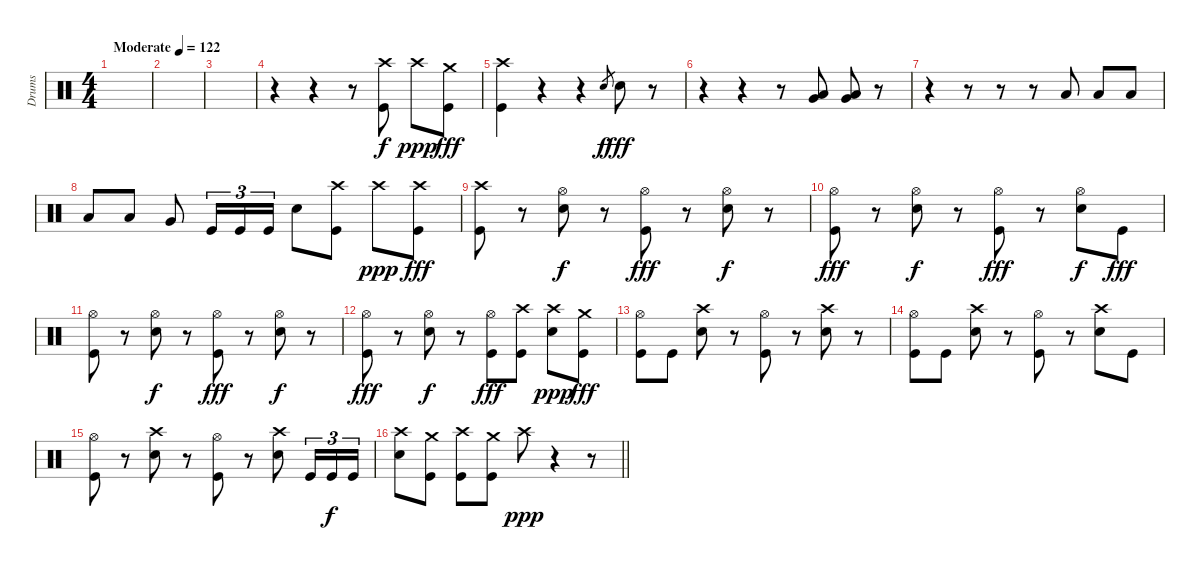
\track ("Drums" "Drums") {instrument percussion}
\staff {score}
\articulation defaults
\ts (4 4)
\tempo (122 "Moderate")
\clef neutral
\ks c
|
|
|
r.4 r.4 r.8 ("Crash high (hit)" "Kick (hit)").8 "Crash high (hit)".8{dy ppp} ("Crash medium (hit)" "Kick (hit)").8{dy fff} |
("Kick (hit)" "Crash high (hit)").4 r.4 r.4 "Snare (hit) 2".8{gr dy f} "Snare (hit) 2".8{dy fff} r.8 |
r.4 r.4 r.8 ("Very Low Tom (hit)" "Low Floor Tom (hit)").8 ("Very Low Tom (hit)" "Low Floor Tom (hit)").8 r.8 |
r.4 r.8 r.8 r.8 "Low Floor Tom (hit)".8{volume 0} "Low Floor Tom (hit)".8{volume 16} "Low Floor Tom (hit)".8 |
"Low Floor Tom (hit)".8{volume 16} "Low Floor Tom (hit)".8 "Very Low Tom (hit)".8 "Kick (hit)".16{tu (3 2)} "Kick (hit)".16{tu (3 2)} "Kick (hit)".16{tu (3 2)} "Snare (hit) 2".8 ("Crash high (hit)" "Kick (hit)").8 "Crash high (hit)".8{dy ppp} ("Crash high (hit)" "Kick (hit)").8{dy fff} |
("Kick (hit)" "Crash high (hit)").8 r.8 ("Hi-Hat (open)" "Snare (hit) 2").8{dy f} r.8 ("Kick (hit)" "Hi-Hat (open)").8{dy fff} r.8 ("Hi-Hat (open)" "Snare (hit) 2").8{dy f} r.8 |
("Kick (hit)" "Hi-Hat (open)").8{dy fff} r.8 ("Hi-Hat (open)" "Snare (hit) 2").8{dy f} r.8 ("Kick (hit)" "Hi-Hat (open)").8{dy fff} r.8 ("Hi-Hat (open)" "Snare (hit) 2").8{dy f} "Kick (hit)".8{dy fff} |
("Kick (hit)" "Hi-Hat (open)").8 r.8 ("Hi-Hat (open)" "Snare (hit) 2").8{dy f} r.8 ("Kick (hit)" "Hi-Hat (open)").8{dy fff} r.8 ("Hi-Hat (open)" "Snare (hit) 2").8{dy f} r.8 |
("Kick (hit)" "Hi-Hat (open)").8{dy fff} r.8 ("Hi-Hat (open)" "Snare (hit) 2").8{dy f} r.8 ("Kick (hit)" "Hi-Hat (open)").8{dy fff} ("Crash high (hit)" "Kick (hit)").8 ("Snare (hit) 2" "Crash high (hit)").8{dy ppp} ("Crash medium (hit)" "Kick (hit)").8{dy fff} |
("Kick (hit)" "Hi-Hat (open)").8 "Kick (hit)".8 ("Crash high (hit)" "Snare (hit) 2").8 r.8 ("Kick (hit)" "Hi-Hat (open)").8 r.8 ("Crash high (hit)" "Snare (hit) 2").8 r.8 |
("Kick (hit)" "Hi-Hat (open)").8 "Kick (hit)".8 ("Crash high (hit)" "Snare (hit) 2").8 r.8 ("Kick (hit)" "Hi-Hat (open)").8 r.8 ("Crash high (hit)" "Snare (hit) 2").8 "Kick (hit)".8 |
("Kick (hit)" "Hi-Hat (open)").8 r.8 ("Crash high (hit)" "Snare (hit) 2").8 r.8 ("Kick (hit)" "Hi-Hat (open)").8 r.8 ("Crash high (hit)" "Snare (hit) 2").8 "Kick (hit)".16{tu (3 2)} "Kick (hit)".16{tu (3 2) dy f} "Kick (hit)".16{tu (3 2)} |
\barLineRight lightlight
("Snare (hit) 2" "Crash high (hit)").8 ("Crash medium (hit)" "Kick (hit)").8 ("Kick (hit)" "Crash high (hit)").8 ("Crash medium (hit)" "Kick (hit)").8 "Crash high (hit)".8{dy ppp} r.4 r.8
